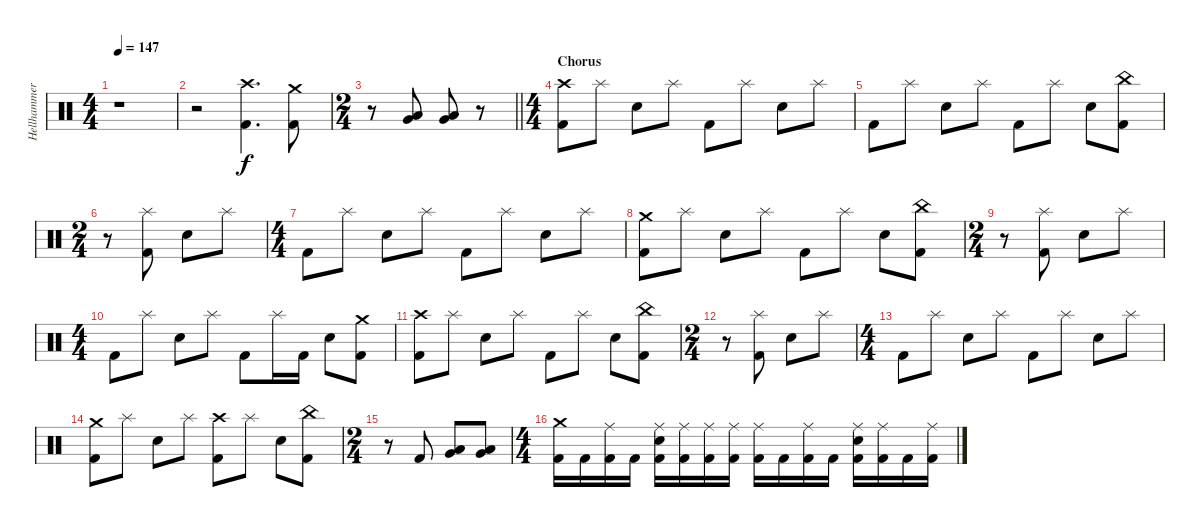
\track ("Hellhammer" "Hellhammer") {instrument percussion}
\staff {score}
\articulation defaults
\ts (4 4)
\tempo 147
\clef neutral
\ks c
r.1{dy f} |
r.2 ("Crash high (hit)" "Kick (hit) 2").4{d} ("Crash medium (hit)" "Kick (hit) 2").8 |
\ts (2 4)
\barLineRight lightlight
r.8 ("Very Low Tom (hit)" "Low Floor Tom (hit)").8 ("Very Low Tom (hit)" "Low Floor Tom (hit)").8 r.8 |
\ts (4 4)
\section ("" "Chorus")
("Crash high (hit)" "Kick (hit) 2").8 "Splash (hit)".8 "Electric Snare (hit)".8 "Splash (hit)".8 "Kick (hit) 2".8 "Splash (hit)".8 "Electric Snare (hit)".8 "Splash (hit)".8 |
"Kick (hit) 2".8 "Splash (hit)".8 "Electric Snare (hit)".8 "Splash (hit)".8 "Kick (hit) 2".8 "Splash (hit)".8 "Electric Snare (hit)".8 ("China (hit)" "Kick (hit) 2").8 |
\ts (2 4)
r.8 ("Splash (hit)" "Kick (hit) 2").8 "Electric Snare (hit)".8 "Splash (hit)".8 |
\ts (4 4)
"Kick (hit) 2".8 "Splash (hit)".8 "Electric Snare (hit)".8 "Splash (hit)".8 "Kick (hit) 2".8 "Splash (hit)".8 "Electric Snare (hit)".8 "Splash (hit)".8 |
("Crash medium (hit)" "Kick (hit) 2").8 "Splash (hit)".8 "Electric Snare (hit)".8 "Splash (hit)".8 "Kick (hit) 2".8 "Splash (hit)".8 "Electric Snare (hit)".8 ("China (hit)" "Kick (hit) 2").8 |
\ts (2 4)
r.8 ("Splash (hit)" "Kick (hit) 2").8 "Electric Snare (hit)".8 "Splash (hit)".8 |
\ts (4 4)
"Kick (hit) 2".8 "Splash (hit)".8 "Electric Snare (hit)".8 "Splash (hit)".8 "Kick (hit) 2".8 "Splash (hit)".16 "Kick (hit) 2".16 "Electric Snare (hit)".8 ("Crash medium (hit)" "Kick (hit) 2").8 |
("Crash high (hit)" "Kick (hit) 2").8 "Splash (hit)".8 "Electric Snare (hit)".8 "Splash (hit)".8 "Kick (hit) 2".8 "Splash (hit)".8 "Electric Snare (hit)".8 ("China (hit)" "Kick (hit) 2").8 |
\ts (2 4)
r.8 ("Splash (hit)" "Kick (hit) 2").8 "Electric Snare (hit)".8 "Splash (hit)".8 |
\ts (4 4)
"Kick (hit) 2".8 "Splash (hit)".8 "Electric Snare (hit)".8 "Splash (hit)".8 "Kick (hit) 2".8 "Splash (hit)".8 "Electric Snare (hit)".8 "Splash (hit)".8 |
("Crash medium (hit)" "Kick (hit) 2").8 "Splash (hit)".8 "Electric Snare (hit)".8 "Splash (hit)".8 ("Crash high (hit)" "Kick (hit) 2").8 "Splash (hit)".8 "Electric Snare (hit)".8 ("China (hit)" "Kick (hit) 2").8 |
\ts (2 4)
r.8 "Kick (hit) 2".8 ("Very Low Tom (hit)" "Low Floor Tom (hit)").8 ("Very Low Tom (hit)" "Low Floor Tom (hit)").8 |
\ts (4 4)
("Crash medium (hit)" "Kick (hit) 2").16 "Kick (hit) 2".16 ("Ride (middle)" "Kick (hit) 2").16 "Kick (hit) 2".16 ("Ride (middle)" "Electric Snare (hit)" "Kick (hit) 2").16 ("Ride (middle)" "Kick (hit) 2").16 ("Ride (middle)" "Kick (hit) 2").16 ("Ride (middle)" "Kick (hit) 2").16 ("Ride (middle)" "Kick (hit) 2").16 "Kick (hit) 2".16 ("Ride (middle)" "Kick (hit) 2").16 "Kick (hit) 2".16 ("Ride (middle)" "Electric Snare (hit)" "Kick (hit) 2").16 ("Ride (middle)" "Kick (hit) 2").16 "Kick (hit) 2".16 ("Ride (middle)" "Kick (hit) 2").16
